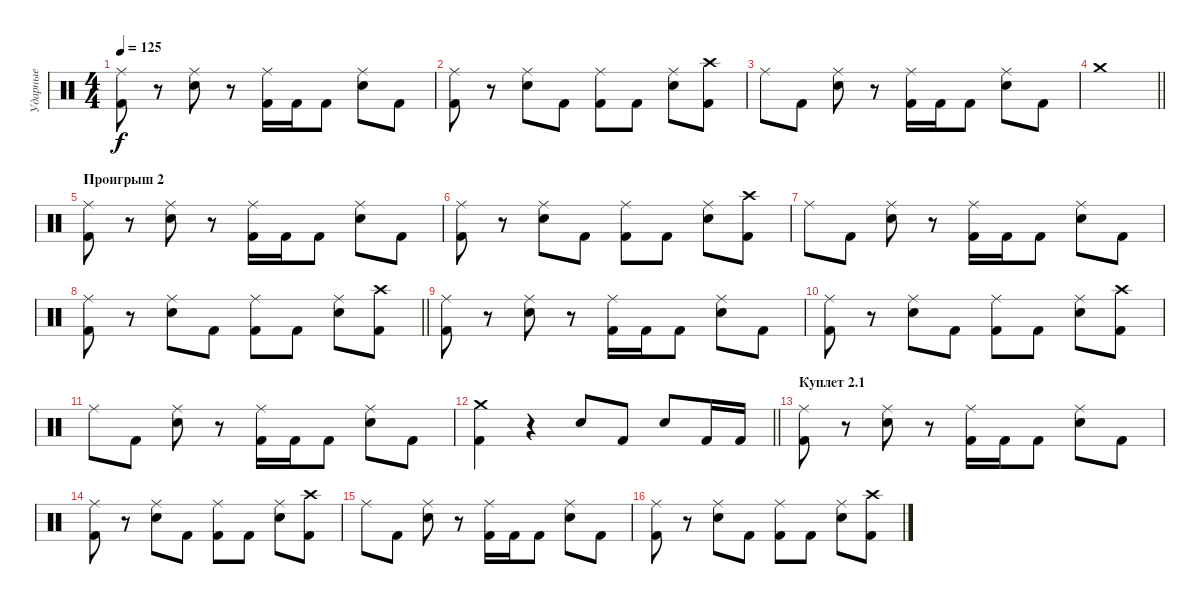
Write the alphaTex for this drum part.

\track ("Ударные" "Ударные") {instrument percussion}
\staff {score}
\articulation defaults
\ts (4 4)
\tempo 125
\clef neutral
\ks c
("Ride (middle)" "Kick (hit) 2").8{dy f} r.8 ("Ride (middle)" "Snare (hit) 2").8 r.8 ("Ride (middle)" "Kick (hit) 2").16 "Kick (hit) 2".16 "Kick (hit) 2".8 ("Ride (middle)" "Snare (hit) 2").8 "Kick (hit) 2".8 |
("Ride (middle)" "Kick (hit) 2").8 r.8 ("Ride (middle)" "Snare (hit) 2").8 "Kick (hit) 2".8 ("Ride (middle)" "Kick (hit) 2").8 "Kick (hit) 2".8 ("Ride (middle)" "Snare (hit) 2").8 ("Crash high (hit)" "Kick (hit) 2").8 |
"Ride (middle)".8 "Kick (hit) 2".8 ("Ride (middle)" "Snare (hit) 2").8 r.8 ("Ride (middle)" "Kick (hit) 2").16 "Kick (hit) 2".16 "Kick (hit) 2".8 ("Ride (middle)" "Snare (hit) 2").8 "Kick (hit) 2".8 |
\barLineRight lightlight "Crash medium (hit)".1
|
\section ("" "Проигрыш 2")
("Ride (middle)" "Kick (hit) 2").8 r.8 ("Ride (middle)" "Snare (hit) 2").8 r.8 ("Ride (middle)" "Kick (hit) 2").16 "Kick (hit) 2".16 "Kick (hit) 2".8 ("Ride (middle)" "Snare (hit) 2").8 "Kick (hit) 2".8 |
("Ride (middle)" "Kick (hit) 2").8 r.8 ("Ride (middle)" "Snare (hit) 2").8 "Kick (hit) 2".8 ("Ride (middle)" "Kick (hit) 2").8 "Kick (hit) 2".8 ("Ride (middle)" "Snare (hit) 2").8 ("Crash high (hit)" "Kick (hit) 2").8 |
"Ride (middle)".8 "Kick (hit) 2".8 ("Ride (middle)" "Snare (hit) 2").8 r.8 ("Ride (middle)" "Kick (hit) 2").16 "Kick (hit) 2".16 "Kick (hit) 2".8 ("Ride (middle)" "Snare (hit) 2").8 "Kick (hit) 2".8 |
\barLineRight lightlight
("Ride (middle)" "Kick (hit) 2").8 r.8 ("Ride (middle)" "Snare (hit) 2").8 "Kick (hit) 2".8 ("Ride (middle)" "Kick (hit) 2").8 "Kick (hit) 2".8 ("Ride (middle)" "Snare (hit) 2").8 ("Crash high (hit)" "Kick (hit) 2").8 |
("Ride (middle)" "Kick (hit) 2").8 r.8 ("Ride (middle)" "Snare (hit) 2").8 r.8 ("Ride (middle)" "Kick (hit) 2").16 "Kick (hit) 2".16 "Kick (hit) 2".8 ("Ride (middle)" "Snare (hit) 2").8 "Kick (hit) 2".8 |
("Ride (middle)" "Kick (hit) 2").8 r.8 ("Ride (middle)" "Snare (hit) 2").8 "Kick (hit) 2".8 ("Ride (middle)" "Kick (hit) 2").8 "Kick (hit) 2".8 ("Ride (middle)" "Snare (hit) 2").8 ("Crash high (hit)" "Kick (hit) 2").8 |
"Ride (middle)".8 "Kick (hit) 2".8 ("Ride (middle)" "Snare (hit) 2").8 r.8 ("Ride (middle)" "Kick (hit) 2").16 "Kick (hit) 2".16 "Kick (hit) 2".8 ("Ride (middle)" "Snare (hit) 2").8 "Kick (hit) 2".8 |
\barLineRight lightlight
("Kick (hit) 2" "Crash medium (hit)").4 r.4 "Snare (hit) 2".8 "Kick (hit) 2".8 "Snare (hit) 2".8 "Kick (hit) 2".16 "Kick (hit) 2".16 |
\section ("" "Куплет 2.1")
("Ride (middle)" "Kick (hit) 2").8 r.8 ("Ride (middle)" "Snare (hit) 2").8 r.8 ("Ride (middle)" "Kick (hit) 2").16 "Kick (hit) 2".16 "Kick (hit) 2".8 ("Ride (middle)" "Snare (hit) 2").8 "Kick (hit) 2".8 |
("Ride (middle)" "Kick (hit) 2").8 r.8 ("Ride (middle)" "Snare (hit) 2").8 "Kick (hit) 2".8 ("Ride (middle)" "Kick (hit) 2").8 "Kick (hit) 2".8 ("Ride (middle)" "Snare (hit) 2").8 ("Crash high (hit)" "Kick (hit) 2").8 |
"Ride (middle)".8 "Kick (hit) 2".8 ("Ride (middle)" "Snare (hit) 2").8 r.8 ("Ride (middle)" "Kick (hit) 2").16 "Kick (hit) 2".16 "Kick (hit) 2".8 ("Ride (middle)" "Snare (hit) 2").8 "Kick (hit) 2".8 |
("Ride (middle)" "Kick (hit) 2").8 r.8 ("Ride (middle)" "Snare (hit) 2").8 "Kick (hit) 2".8 ("Ride (middle)" "Kick (hit) 2").8 "Kick (hit) 2".8 ("Ride (middle)" "Snare (hit) 2").8 ("Crash high (hit)" "Kick (hit) 2").8
